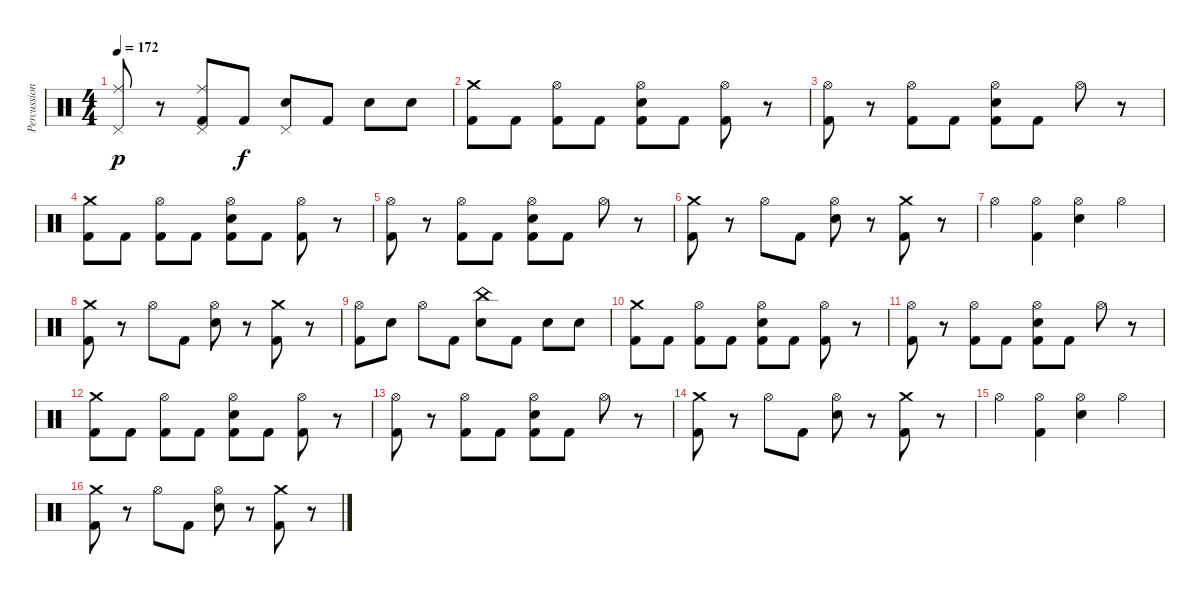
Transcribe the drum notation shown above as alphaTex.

\track ("Percussions" "Percussion") {instrument percussion}
\staff {score}
\articulation defaults
\ts (4 4)
\tempo 172
\clef neutral
\ks c
("Pedal Hi-Hat (hit)" "Ride (middle)").8{dy p} r.8 ("Pedal Hi-Hat (hit)" "Ride (middle)" "Kick (hit) 2").8 "Kick (hit) 2".8{dy f} ("Pedal Hi-Hat (hit)" "Snare (hit) 2").8 "Kick (hit) 2".8 "Snare (hit) 2".8 "Snare (hit) 2".8 |
("Crash medium (hit)" "Kick (hit) 2").8 "Kick (hit) 2".8 ("Hi-Hat (open)" "Kick (hit) 2").8 "Kick (hit) 2".8 ("Hi-Hat (open)" "Snare (hit) 2" "Kick (hit) 2").8 "Kick (hit) 2".8 ("Hi-Hat (open)" "Kick (hit) 2").8 r.8 |
("Hi-Hat (open)" "Kick (hit) 2").8 r.8 ("Hi-Hat (open)" "Kick (hit) 2").8 "Kick (hit) 2".8 ("Hi-Hat (open)" "Snare (hit) 2" "Kick (hit) 2").8 "Kick (hit) 2".8 "Hi-Hat (open)".8 r.8 |
("Crash medium (hit)" "Kick (hit) 2").8 "Kick (hit) 2".8 ("Hi-Hat (open)" "Kick (hit) 2").8 "Kick (hit) 2".8 ("Hi-Hat (open)" "Snare (hit) 2" "Kick (hit) 2").8 "Kick (hit) 2".8 ("Hi-Hat (open)" "Kick (hit) 2").8 r.8 |
("Hi-Hat (open)" "Kick (hit) 2").8 r.8 ("Hi-Hat (open)" "Kick (hit) 2").8 "Kick (hit) 2".8 ("Hi-Hat (open)" "Snare (hit) 2" "Kick (hit) 2").8 "Kick (hit) 2".8 "Hi-Hat (open)".8 r.8 |
("Crash medium (hit)" "Kick (hit) 2").8 r.8 "Hi-Hat (open)".8 "Kick (hit) 2".8 ("Hi-Hat (open)" "Snare (hit) 2").8 r.8 ("Crash medium (hit)" "Kick (hit) 2").8 r.8 |
"Hi-Hat (open)".4 ("Hi-Hat (open)" "Kick (hit) 2").4 ("Hi-Hat (open)" "Snare (hit) 2").4 "Hi-Hat (open)".4 |
("Crash medium (hit)" "Kick (hit) 2").8 r.8 "Hi-Hat (open)".8 "Kick (hit) 2".8 ("Hi-Hat (open)" "Snare (hit) 2").8 r.8 ("Crash medium (hit)" "Kick (hit) 2").8 r.8 |
("Hi-Hat (open)" "Kick (hit) 2").8 "Snare (hit) 2".8 "Hi-Hat (open)".8 "Kick (hit) 2".8 ("China (hit)" "Snare (hit) 2").8 "Kick (hit) 2".8 "Snare (hit) 2".8 "Snare (hit) 2".8 |
("Crash medium (hit)" "Kick (hit) 2").8 "Kick (hit) 2".8 ("Hi-Hat (open)" "Kick (hit) 2").8 "Kick (hit) 2".8 ("Hi-Hat (open)" "Snare (hit) 2" "Kick (hit) 2").8 "Kick (hit) 2".8 ("Hi-Hat (open)" "Kick (hit) 2").8 r.8 |
("Hi-Hat (open)" "Kick (hit) 2").8 r.8 ("Hi-Hat (open)" "Kick (hit) 2").8 "Kick (hit) 2".8 ("Hi-Hat (open)" "Snare (hit) 2" "Kick (hit) 2").8 "Kick (hit) 2".8 "Hi-Hat (open)".8 r.8 |
("Crash medium (hit)" "Kick (hit) 2").8 "Kick (hit) 2".8 ("Hi-Hat (open)" "Kick (hit) 2").8 "Kick (hit) 2".8 ("Hi-Hat (open)" "Snare (hit) 2" "Kick (hit) 2").8 "Kick (hit) 2".8 ("Hi-Hat (open)" "Kick (hit) 2").8 r.8 |
("Hi-Hat (open)" "Kick (hit) 2").8 r.8 ("Hi-Hat (open)" "Kick (hit) 2").8 "Kick (hit) 2".8 ("Hi-Hat (open)" "Snare (hit) 2" "Kick (hit) 2").8 "Kick (hit) 2".8 "Hi-Hat (open)".8 r.8 |
("Crash medium (hit)" "Kick (hit) 2").8 r.8 "Hi-Hat (open)".8 "Kick (hit) 2".8 ("Hi-Hat (open)" "Snare (hit) 2").8 r.8 ("Crash medium (hit)" "Kick (hit) 2").8 r.8 |
"Hi-Hat (open)".4 ("Hi-Hat (open)" "Kick (hit) 2").4 ("Hi-Hat (open)" "Snare (hit) 2").4 "Hi-Hat (open)".4 |
("Crash medium (hit)" "Kick (hit) 2").8 r.8 "Hi-Hat (open)".8 "Kick (hit) 2".8 ("Hi-Hat (open)" "Snare (hit) 2").8 r.8 ("Crash medium (hit)" "Kick (hit) 2").8 r.8
